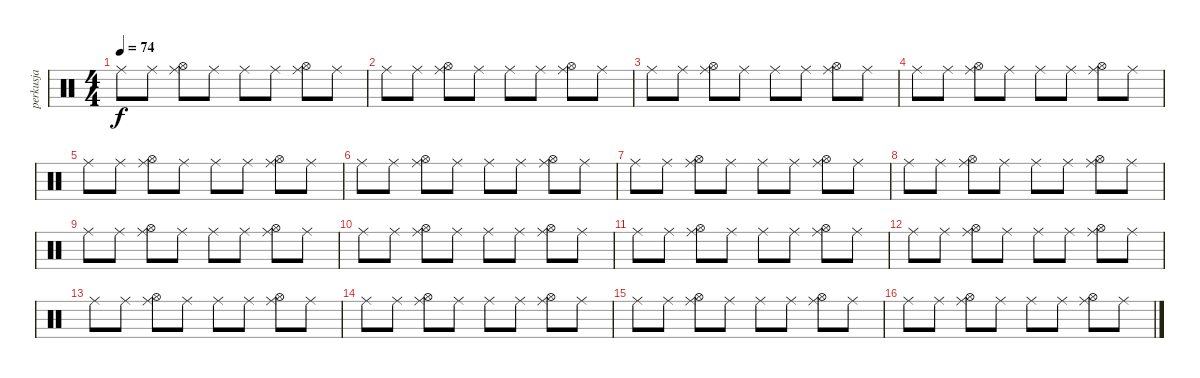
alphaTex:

\track ("perkusja" "perkusja") {instrument percussion}
\staff {score}
\articulation defaults
\ts (4 4)
\tempo 74
\clef neutral
\ks c "Ride (middle)".8{dy f} "Ride (middle)".8
("Ride (middle)" "Hi-Hat (open)").8 "Ride (middle)".8 "Ride (middle)".8 "Ride (middle)".8 ("Ride (middle)" "Hi-Hat (open)").8 "Ride (middle)".8 |
"Ride (middle)".8 "Ride (middle)".8 ("Ride (middle)" "Hi-Hat (open)").8 "Ride (middle)".8 "Ride (middle)".8 "Ride (middle)".8 ("Ride (middle)" "Hi-Hat (open)").8 "Ride (middle)".8 |
"Ride (middle)".8 "Ride (middle)".8 ("Ride (middle)" "Hi-Hat (open)").8 "Ride (middle)".8 "Ride (middle)".8 "Ride (middle)".8 ("Ride (middle)" "Hi-Hat (open)").8 "Ride (middle)".8 |
"Ride (middle)".8 "Ride (middle)".8 ("Ride (middle)" "Hi-Hat (open)").8 "Ride (middle)".8 "Ride (middle)".8 "Ride (middle)".8 ("Ride (middle)" "Hi-Hat (open)").8 "Ride (middle)".8 |
"Ride (middle)".8 "Ride (middle)".8 ("Ride (middle)" "Hi-Hat (open)").8 "Ride (middle)".8 "Ride (middle)".8 "Ride (middle)".8 ("Ride (middle)" "Hi-Hat (open)").8 "Ride (middle)".8 |
"Ride (middle)".8 "Ride (middle)".8 ("Ride (middle)" "Hi-Hat (open)").8 "Ride (middle)".8 "Ride (middle)".8 "Ride (middle)".8 ("Ride (middle)" "Hi-Hat (open)").8 "Ride (middle)".8 |
"Ride (middle)".8 "Ride (middle)".8 ("Ride (middle)" "Hi-Hat (open)").8 "Ride (middle)".8 "Ride (middle)".8 "Ride (middle)".8 ("Ride (middle)" "Hi-Hat (open)").8 "Ride (middle)".8 |
"Ride (middle)".8 "Ride (middle)".8 ("Ride (middle)" "Hi-Hat (open)").8 "Ride (middle)".8 "Ride (middle)".8 "Ride (middle)".8 ("Ride (middle)" "Hi-Hat (open)").8 "Ride (middle)".8 |
"Ride (middle)".8 "Ride (middle)".8 ("Ride (middle)" "Hi-Hat (open)").8 "Ride (middle)".8 "Ride (middle)".8 "Ride (middle)".8 ("Ride (middle)" "Hi-Hat (open)").8 "Ride (middle)".8 |
"Ride (middle)".8 "Ride (middle)".8 ("Ride (middle)" "Hi-Hat (open)").8 "Ride (middle)".8 "Ride (middle)".8 "Ride (middle)".8 ("Ride (middle)" "Hi-Hat (open)").8 "Ride (middle)".8 |
"Ride (middle)".8 "Ride (middle)".8 ("Ride (middle)" "Hi-Hat (open)").8 "Ride (middle)".8 "Ride (middle)".8 "Ride (middle)".8 ("Ride (middle)" "Hi-Hat (open)").8 "Ride (middle)".8 |
"Ride (middle)".8 "Ride (middle)".8 ("Ride (middle)" "Hi-Hat (open)").8 "Ride (middle)".8 "Ride (middle)".8 "Ride (middle)".8 ("Ride (middle)" "Hi-Hat (open)").8 "Ride (middle)".8 |
"Ride (middle)".8 "Ride (middle)".8 ("Ride (middle)" "Hi-Hat (open)").8 "Ride (middle)".8 "Ride (middle)".8 "Ride (middle)".8 ("Ride (middle)" "Hi-Hat (open)").8 "Ride (middle)".8 |
"Ride (middle)".8 "Ride (middle)".8 ("Ride (middle)" "Hi-Hat (open)").8 "Ride (middle)".8 "Ride (middle)".8 "Ride (middle)".8 ("Ride (middle)" "Hi-Hat (open)").8 "Ride (middle)".8 |
"Ride (middle)".8 "Ride (middle)".8 ("Ride (middle)" "Hi-Hat (open)").8 "Ride (middle)".8 "Ride (middle)".8 "Ride (middle)".8 ("Ride (middle)" "Hi-Hat (open)").8 "Ride (middle)".8 |
"Ride (middle)".8 "Ride (middle)".8 ("Ride (middle)" "Hi-Hat (open)").8 "Ride (middle)".8 "Ride (middle)".8 "Ride (middle)".8 ("Ride (middle)" "Hi-Hat (open)").8 "Ride (middle)".8
